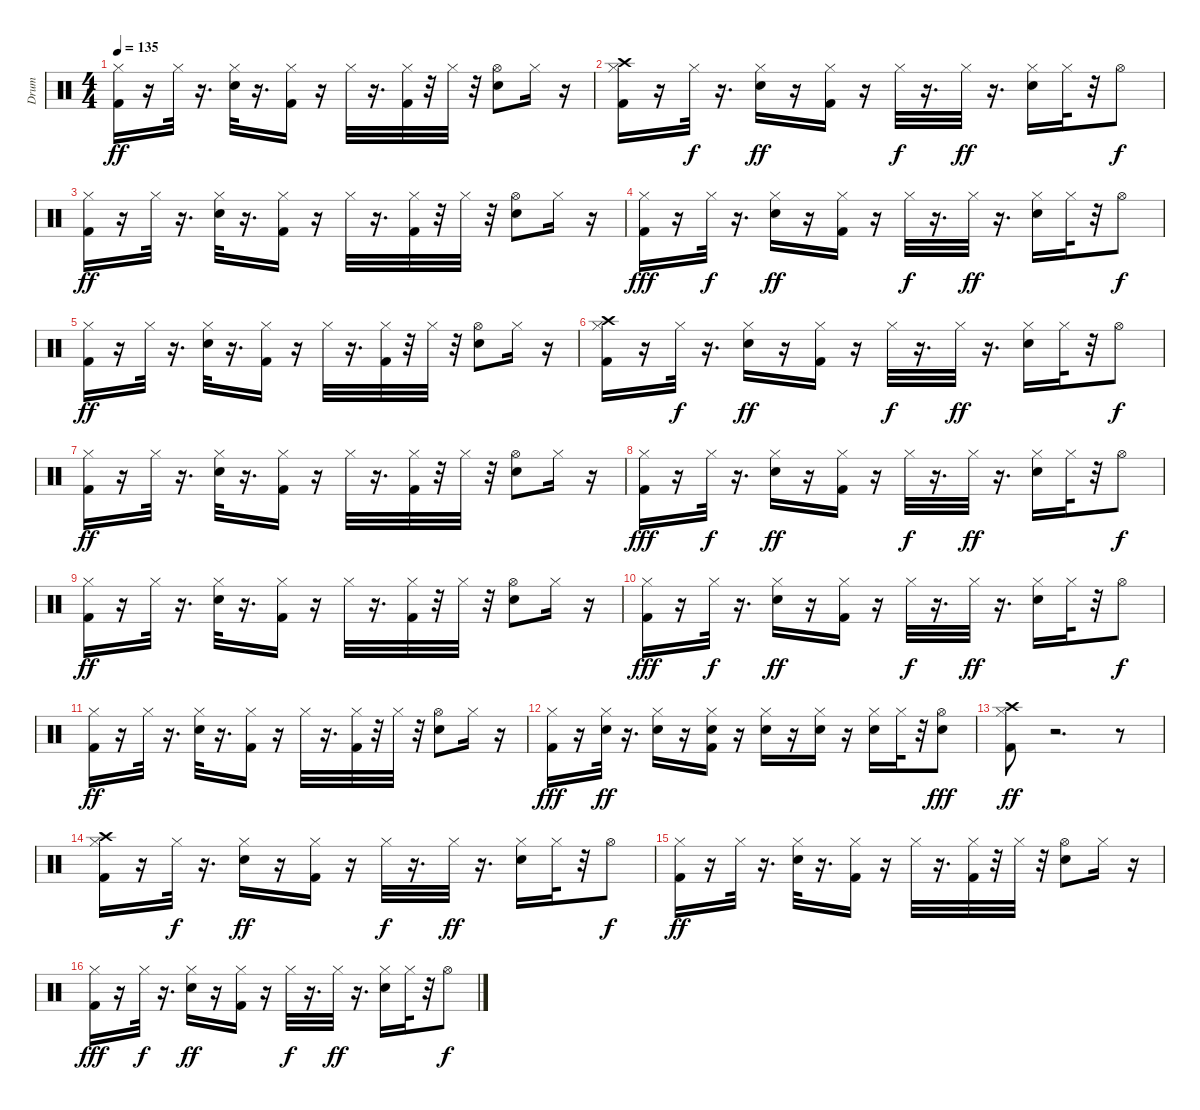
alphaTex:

\track ("Drum" "Drum") {instrument percussion}
\staff {score}
\articulation defaults
\ts (4 4)
\tempo 135
\clef neutral
\ks c
("Kick (hit) 2" "Hi-Hat (closed)").16{dy ff} r.16 "Hi-Hat (closed)".32 r.16{d} ("Snare (hit) 2" "Hi-Hat (closed)").32 r.16{d} ("Kick (hit) 2" "Hi-Hat (closed)").16 r.16 "Hi-Hat (closed)".32 r.16{d} ("Kick (hit) 2" "Hi-Hat (closed)").32 r.32 "Hi-Hat (closed)".32 r.32 ("Snare (hit) 2" "Hi-Hat (open)").8 "Hi-Hat (closed)".16 r.16 |
("Kick (hit) 2" "Hi-Hat (closed)" "Crash high (hit)").16 r.16 "Hi-Hat (closed)".32{dy f} r.16{d} ("Snare (hit) 2" "Hi-Hat (closed)").16{dy ff} r.16 ("Kick (hit) 2" "Hi-Hat (closed)").16 r.16 "Hi-Hat (closed)".32{dy f} r.16{d} "Hi-Hat (closed)".32{dy ff} r.16{d} ("Snare (hit) 2" "Hi-Hat (closed)").16 "Hi-Hat (closed)".32 r.32 "Hi-Hat (open)".8{dy f} |
("Kick (hit) 2" "Hi-Hat (closed)").16{dy ff} r.16 "Hi-Hat (closed)".32 r.16{d} ("Snare (hit) 2" "Hi-Hat (closed)").32 r.16{d} ("Kick (hit) 2" "Hi-Hat (closed)").16 r.16 "Hi-Hat (closed)".32 r.16{d} ("Kick (hit) 2" "Hi-Hat (closed)").32 r.32 "Hi-Hat (closed)".32 r.32 ("Snare (hit) 2" "Hi-Hat (open)").8 "Hi-Hat (closed)".16 r.16 |
("Kick (hit) 2" "Hi-Hat (closed)").16{dy fff} r.16 "Hi-Hat (closed)".32{dy f} r.16{d} ("Snare (hit) 2" "Hi-Hat (closed)").16{dy ff} r.16 ("Kick (hit) 2" "Hi-Hat (closed)").16 r.16 "Hi-Hat (closed)".32{dy f} r.16{d} "Hi-Hat (closed)".32{dy ff} r.16{d} ("Snare (hit) 2" "Hi-Hat (closed)").16 "Hi-Hat (closed)".32 r.32 "Hi-Hat (open)".8{dy f} |
("Kick (hit) 2" "Hi-Hat (closed)").16{dy ff} r.16 "Hi-Hat (closed)".32 r.16{d} ("Snare (hit) 2" "Hi-Hat (closed)").32 r.16{d} ("Kick (hit) 2" "Hi-Hat (closed)").16 r.16 "Hi-Hat (closed)".32 r.16{d} ("Kick (hit) 2" "Hi-Hat (closed)").32 r.32 "Hi-Hat (closed)".32 r.32 ("Snare (hit) 2" "Hi-Hat (open)").8 "Hi-Hat (closed)".16 r.16 |
("Kick (hit) 2" "Hi-Hat (closed)" "Crash high (hit)").16 r.16 "Hi-Hat (closed)".32{dy f} r.16{d} ("Snare (hit) 2" "Hi-Hat (closed)").16{dy ff} r.16 ("Kick (hit) 2" "Hi-Hat (closed)").16 r.16 "Hi-Hat (closed)".32{dy f} r.16{d} "Hi-Hat (closed)".32{dy ff} r.16{d} ("Snare (hit) 2" "Hi-Hat (closed)").16 "Hi-Hat (closed)".32 r.32 "Hi-Hat (open)".8{dy f} |
("Kick (hit) 2" "Hi-Hat (closed)").16{dy ff} r.16 "Hi-Hat (closed)".32 r.16{d} ("Snare (hit) 2" "Hi-Hat (closed)").32 r.16{d} ("Kick (hit) 2" "Hi-Hat (closed)").16 r.16 "Hi-Hat (closed)".32 r.16{d} ("Kick (hit) 2" "Hi-Hat (closed)").32 r.32 "Hi-Hat (closed)".32 r.32 ("Snare (hit) 2" "Hi-Hat (open)").8 "Hi-Hat (closed)".16 r.16 |
("Kick (hit) 2" "Hi-Hat (closed)").16{dy fff} r.16 "Hi-Hat (closed)".32{dy f} r.16{d} ("Snare (hit) 2" "Hi-Hat (closed)").16{dy ff} r.16 ("Kick (hit) 2" "Hi-Hat (closed)").16 r.16 "Hi-Hat (closed)".32{dy f} r.16{d} "Hi-Hat (closed)".32{dy ff} r.16{d} ("Snare (hit) 2" "Hi-Hat (closed)").16 "Hi-Hat (closed)".32 r.32 "Hi-Hat (open)".8{dy f} |
("Kick (hit) 2" "Hi-Hat (closed)").16{dy ff} r.16 "Hi-Hat (closed)".32 r.16{d} ("Snare (hit) 2" "Hi-Hat (closed)").32 r.16{d} ("Kick (hit) 2" "Hi-Hat (closed)").16 r.16 "Hi-Hat (closed)".32 r.16{d} ("Kick (hit) 2" "Hi-Hat (closed)").32 r.32 "Hi-Hat (closed)".32 r.32 ("Snare (hit) 2" "Hi-Hat (open)").8 "Hi-Hat (closed)".16 r.16 |
("Kick (hit) 2" "Hi-Hat (closed)").16{dy fff} r.16 "Hi-Hat (closed)".32{dy f} r.16{d} ("Snare (hit) 2" "Hi-Hat (closed)").16{dy ff} r.16 ("Kick (hit) 2" "Hi-Hat (closed)").16 r.16 "Hi-Hat (closed)".32{dy f} r.16{d} "Hi-Hat (closed)".32{dy ff} r.16{d} ("Snare (hit) 2" "Hi-Hat (closed)").16 "Hi-Hat (closed)".32 r.32 "Hi-Hat (open)".8{dy f} |
("Kick (hit) 2" "Hi-Hat (closed)").16{dy ff} r.16 "Hi-Hat (closed)".32 r.16{d} ("Snare (hit) 2" "Hi-Hat (closed)").32 r.16{d} ("Kick (hit) 2" "Hi-Hat (closed)").16 r.16 "Hi-Hat (closed)".32 r.16{d} ("Kick (hit) 2" "Hi-Hat (closed)").32 r.32 "Hi-Hat (closed)".32 r.32 ("Snare (hit) 2" "Hi-Hat (open)").8 "Hi-Hat (closed)".16 r.16 |
("Kick (hit) 2" "Hi-Hat (closed)").16{dy fff} r.16 ("Snare (hit) 2" "Hi-Hat (closed)").32{dy ff} r.16{d} ("Snare (hit) 2" "Hi-Hat (closed)").16 r.16 ("Snare (hit) 2" "Kick (hit) 2" "Hi-Hat (closed)").16 r.16 ("Snare (hit) 2" "Hi-Hat (closed)").16 r.16 ("Snare (hit) 2" "Hi-Hat (closed)").16 r.16 ("Snare (hit) 2" "Hi-Hat (closed)").16 "Hi-Hat (closed)".32 r.32 ("Snare (hit) 2" "Hi-Hat (open)").8{dy fff} |
("Crash high (hit)" "Kick (hit) 2" "Hi-Hat (closed)").8{dy ff} r.2{d} r.8 |
("Kick (hit) 2" "Hi-Hat (closed)" "Crash high (hit)").16 r.16 "Hi-Hat (closed)".32{dy f} r.16{d} ("Snare (hit) 2" "Hi-Hat (closed)").16{dy ff} r.16 ("Kick (hit) 2" "Hi-Hat (closed)").16 r.16 "Hi-Hat (closed)".32{dy f} r.16{d} "Hi-Hat (closed)".32{dy ff} r.16{d} ("Snare (hit) 2" "Hi-Hat (closed)").16 "Hi-Hat (closed)".32 r.32 "Hi-Hat (open)".8{dy f} |
("Kick (hit) 2" "Hi-Hat (closed)").16{dy ff} r.16 "Hi-Hat (closed)".32 r.16{d} ("Snare (hit) 2" "Hi-Hat (closed)").32 r.16{d} ("Kick (hit) 2" "Hi-Hat (closed)").16 r.16 "Hi-Hat (closed)".32 r.16{d} ("Kick (hit) 2" "Hi-Hat (closed)").32 r.32 "Hi-Hat (closed)".32 r.32 ("Snare (hit) 2" "Hi-Hat (open)").8 "Hi-Hat (closed)".16 r.16 |
("Kick (hit) 2" "Hi-Hat (closed)").16{dy fff} r.16 "Hi-Hat (closed)".32{dy f} r.16{d} ("Snare (hit) 2" "Hi-Hat (closed)").16{dy ff} r.16 ("Kick (hit) 2" "Hi-Hat (closed)").16 r.16 "Hi-Hat (closed)".32{dy f} r.16{d} "Hi-Hat (closed)".32{dy ff} r.16{d} ("Snare (hit) 2" "Hi-Hat (closed)").16 "Hi-Hat (closed)".32 r.32 "Hi-Hat (open)".8{dy f}
